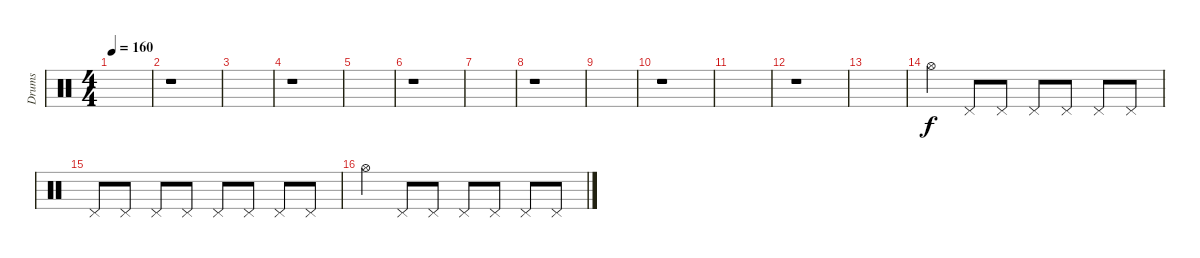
\track ("Drums" "Drums") {instrument percussion}
\staff {score}
\articulation defaults
\ts (4 4)
\tempo 160
\clef neutral
\ks c
|
r.1 |
|
r.1 |
|
r.1 |
|
r.1 |
|
r.1 |
|
r.1 |
|
"Hi-Hat (open)".4 "Pedal Hi-Hat (hit)".8 "Pedal Hi-Hat (hit)".8 "Pedal Hi-Hat (hit)".8 "Pedal Hi-Hat (hit)".8 "Pedal Hi-Hat (hit)".8 "Pedal Hi-Hat (hit)".8 |
"Pedal Hi-Hat (hit)".8 "Pedal Hi-Hat (hit)".8 "Pedal Hi-Hat (hit)".8 "Pedal Hi-Hat (hit)".8 "Pedal Hi-Hat (hit)".8 "Pedal Hi-Hat (hit)".8 "Pedal Hi-Hat (hit)".8 "Pedal Hi-Hat (hit)".8 |
"Hi-Hat (open)".4 "Pedal Hi-Hat (hit)".8 "Pedal Hi-Hat (hit)".8 "Pedal Hi-Hat (hit)".8 "Pedal Hi-Hat (hit)".8 "Pedal Hi-Hat (hit)".8 "Pedal Hi-Hat (hit)".8
